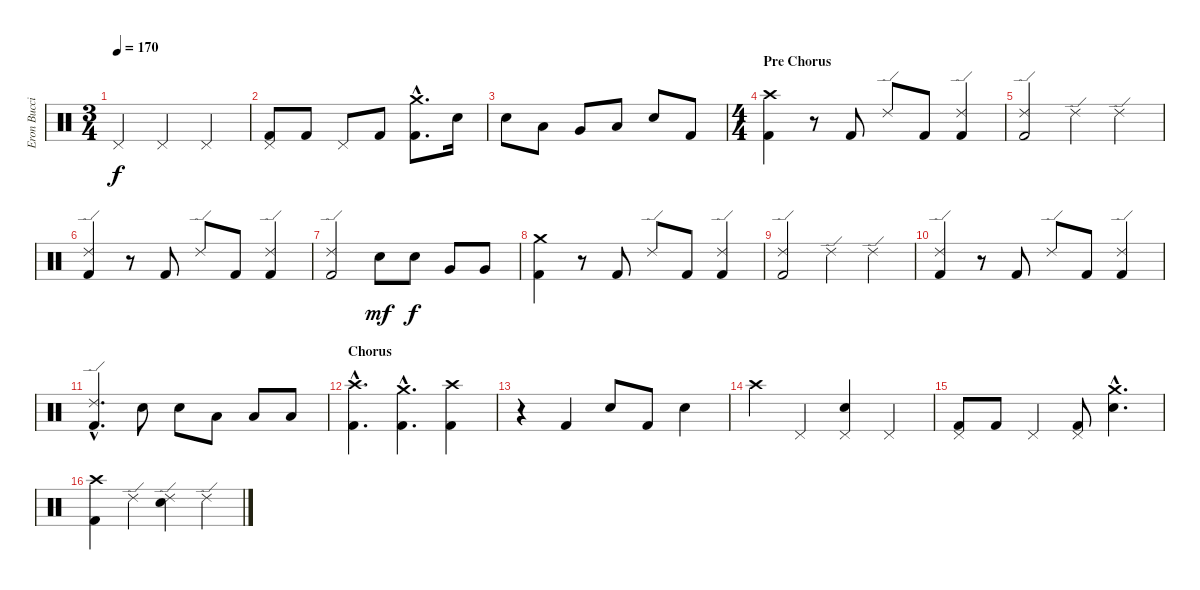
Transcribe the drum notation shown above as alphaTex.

\track ("Eron Bucciarelli (Drums)" "Eron Bucci") {instrument percussion}
\staff {score}
\articulation defaults
\ts (3 4)
\tempo 170
\clef neutral
\ks c "Pedal Hi-Hat (hit)".4{dy f} "Pedal Hi-Hat (hit)".4 "Pedal Hi-Hat (hit)".4
|
("Pedal Hi-Hat (hit)" "Kick (hit) 2").8 "Kick (hit) 2".8 "Pedal Hi-Hat (hit)".8 "Kick (hit) 2".8 ("Crash medium (hit)"{hac} "Kick (hit) 2"{hac}).8{d} "Snare (hit) 2".16 |
"Snare (hit) 2".8 "Low Tom (hit)".8 "Very Low Tom (hit)".8 "Low Floor Tom (hit)".8 "Snare (hit) 2".8 "Kick (hit) 2".8 |
\ts (4 4)
\section ("" "Pre Chorus")
("Crash high (hit)" "Kick (hit) 2").4 r.8 "Kick (hit) 2".8 "Ride (edge) 2".8 "Kick (hit) 2".8 ("Ride (edge) 2" "Kick (hit) 2").4 |
("Ride (edge) 2" "Kick (hit) 2").2 "Ride (edge) 2".4 "Ride (edge) 2".4 |
("Ride (edge) 2" "Kick (hit) 2").4 r.8 "Kick (hit) 2".8 "Ride (edge) 2".8 "Kick (hit) 2".8 ("Ride (edge) 2" "Kick (hit) 2").4 |
("Ride (edge) 2" "Kick (hit) 2").2 "Snare (hit) 2".8{dy mf} "Snare (hit) 2".8{dy f} "Very Low Tom (hit)".8 "Very Low Tom (hit)".8 |
("Crash medium (hit)" "Kick (hit) 2").4 r.8 "Kick (hit) 2".8 "Ride (edge) 2".8 "Kick (hit) 2".8 ("Ride (edge) 2" "Kick (hit) 2").4 |
("Ride (edge) 2" "Kick (hit) 2").2 "Ride (edge) 2".4 "Ride (edge) 2".4 |
("Ride (edge) 2" "Kick (hit) 2").4 r.8 "Kick (hit) 2".8 "Ride (edge) 2".8 "Kick (hit) 2".8 ("Ride (edge) 2" "Kick (hit) 2").4 |
("Ride (edge) 2"{hac} "Kick (hit) 2"{hac}).4{d} "Snare (hit) 2".8 "Snare (hit) 2".8 "Low Tom (hit)".8 "Low Tom (hit)".8 "Low Floor Tom (hit)".8 |
\section ("" "Chorus")
("Crash high (hit)"{hac} "Kick (hit) 2"{hac}).4{d} ("Crash medium (hit)"{hac} "Kick (hit) 2"{hac}).4{d} ("Crash high (hit)" "Kick (hit) 2").4 |
r.4 "Kick (hit) 2".4 "Snare (hit) 2".8 "Kick (hit) 2".8 "Snare (hit) 2".4 |
"Crash high (hit)".4 "Pedal Hi-Hat (hit)".4 ("Pedal Hi-Hat (hit)" "Snare (hit) 2").4 "Pedal Hi-Hat (hit)".4 |
("Pedal Hi-Hat (hit)" "Kick (hit) 2").8 "Kick (hit) 2".8 "Pedal Hi-Hat (hit)".4 ("Pedal Hi-Hat (hit)" "Kick (hit) 2").8 ("Crash medium (hit)"{hac} "Snare (hit) 2"{hac}).4{d} |
("Crash high (hit)" "Kick (hit) 2").4 "Ride (edge) 2".4 ("Ride (edge) 2" "Snare (hit) 2").4 "Ride (edge) 2".4
